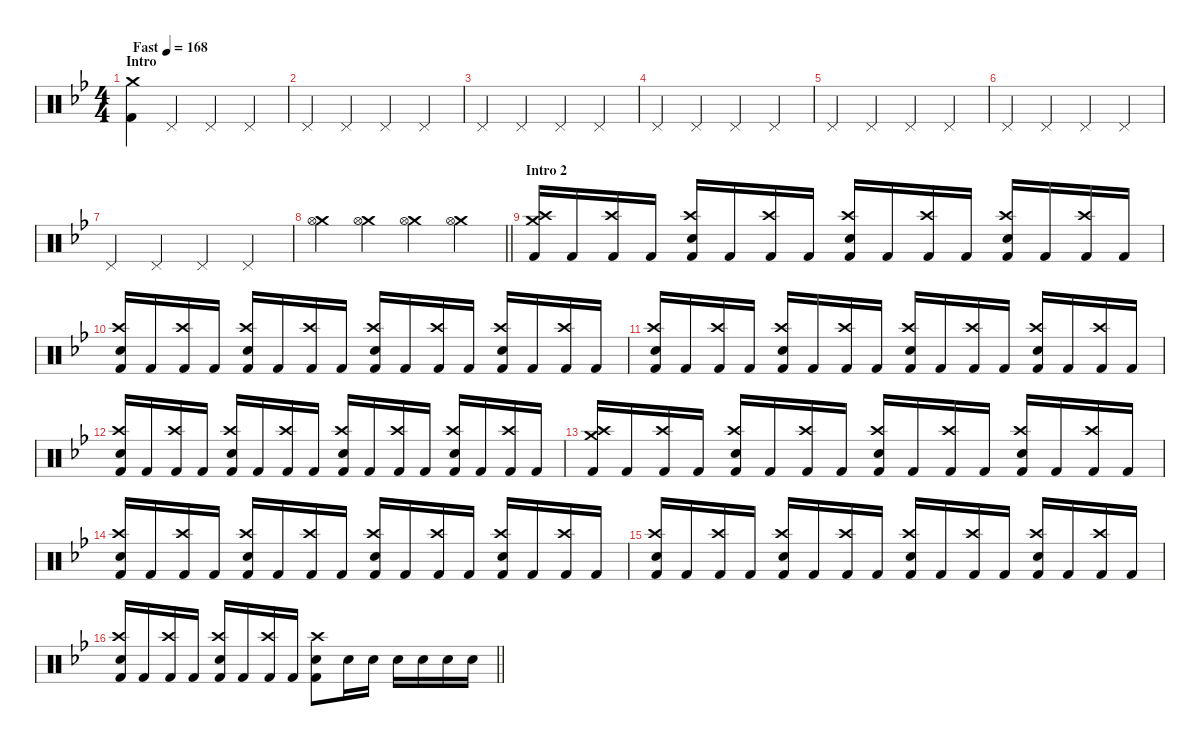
\defaultSystemsLayout 4
\hideDynamics
\bracketExtendMode nobrackets
\singleTrackTrackNamePolicy hidden
\multiTrackTrackNamePolicy hidden
\firstSystemTrackNameMode fullname
\firstSystemTrackNameOrientation horizontal
\otherSystemsTrackNameOrientation horizontal
\track ("Percussion" "drm.") {instrument percussion}
\staff {score}
\articulation defaults
\ts (4 4)
\beaming (8 2 2 2 2)
\section ("" "Intro")
\tempo (168 "Fast")
\clef neutral
\ks bb
("Crash medium (hit)"{acc forcenatural} "Kick (hit) 2"{acc forcenatural}).4{dy f beam Down} "Pedal Hi-Hat (hit)"{acc forcenatural}.4{beam Up} "Pedal Hi-Hat (hit)"{acc forcenatural}.4{beam Up} "Pedal Hi-Hat (hit)"{acc forcenatural}.4{beam Up} |
"Pedal Hi-Hat (hit)"{acc forcenatural}.4{beam Up} "Pedal Hi-Hat (hit)"{acc forcenatural}.4{beam Up} "Pedal Hi-Hat (hit)"{acc forcenatural}.4{beam Up} "Pedal Hi-Hat (hit)"{acc forcenatural}.4{beam Up} |
"Pedal Hi-Hat (hit)"{acc forcenatural}.4{beam Up} "Pedal Hi-Hat (hit)"{acc forcenatural}.4{beam Up} "Pedal Hi-Hat (hit)"{acc forcenatural}.4{beam Up} "Pedal Hi-Hat (hit)"{acc forcenatural}.4{beam Up} |
"Pedal Hi-Hat (hit)"{acc forcenatural}.4{beam Up} "Pedal Hi-Hat (hit)"{acc forcenatural}.4{beam Up} "Pedal Hi-Hat (hit)"{acc forcenatural}.4{beam Up} "Pedal Hi-Hat (hit)"{acc forcenatural}.4{beam Up} |
"Pedal Hi-Hat (hit)"{acc forcenatural}.4{beam Up} "Pedal Hi-Hat (hit)"{acc forcenatural}.4{beam Up} "Pedal Hi-Hat (hit)"{acc forcenatural}.4{beam Up} "Pedal Hi-Hat (hit)"{acc forcenatural}.4{beam Up} |
"Pedal Hi-Hat (hit)"{acc forcenatural}.4{beam Up} "Pedal Hi-Hat (hit)"{acc forcenatural}.4{beam Up} "Pedal Hi-Hat (hit)"{acc forcenatural}.4{beam Up} "Pedal Hi-Hat (hit)"{acc forcenatural}.4{beam Up} |
"Pedal Hi-Hat (hit)"{acc forcenatural}.4{beam Up} "Pedal Hi-Hat (hit)"{acc forcenatural}.4{beam Up} "Pedal Hi-Hat (hit)"{acc forcenatural}.4{beam Up} "Pedal Hi-Hat (hit)"{acc forcenatural}.4{beam Up} |
\barLineRight lightlight
("Crash medium (hit)"{acc forcenatural} "Hi-Hat (open)"{acc forcenatural}).4{beam Down} ("Crash medium (hit)"{acc forcenatural} "Hi-Hat (open)"{acc forcenatural}).4{beam Down} ("Crash medium (hit)"{acc forcenatural} "Hi-Hat (open)"{acc forcenatural}).4{beam Down} ("Crash medium (hit)"{acc forcenatural} "Hi-Hat (open)"{acc forcenatural}).4{beam Down} |
\section ("" "Intro 2")
("Crash high (hit)"{acc forcenatural} "Crash medium (hit)"{acc forcenatural} "Kick (hit) 2"{acc forcenatural}).16{beam Up} "Kick (hit) 2"{acc forcenatural}.16{beam Up} ("Crash high (hit)"{acc forcenatural} "Kick (hit) 2"{acc forcenatural}).16{beam Up} "Kick (hit) 2"{acc forcenatural}.16{beam Up} ("Crash high (hit)"{acc forcenatural} "Snare (hit) 2"{acc forcenatural} "Kick (hit) 2"{acc forcenatural}).16{beam Up} "Kick (hit) 2"{acc forcenatural}.16{beam Up} ("Crash high (hit)"{acc forcenatural} "Kick (hit) 2"{acc forcenatural}).16{beam Up} "Kick (hit) 2"{acc forcenatural}.16{beam Up} ("Crash high (hit)"{acc forcenatural} "Snare (hit) 2"{acc forcenatural} "Kick (hit) 2"{acc forcenatural}).16{beam Up} "Kick (hit) 2"{acc forcenatural}.16{beam Up} ("Crash high (hit)"{acc forcenatural} "Kick (hit) 2"{acc forcenatural}).16{beam Up} "Kick (hit) 2"{acc forcenatural}.16{beam Up} ("Crash high (hit)"{acc forcenatural} "Snare (hit) 2"{acc forcenatural} "Kick (hit) 2"{acc forcenatural}).16{beam Up} "Kick (hit) 2"{acc forcenatural}.16{beam Up} ("Crash high (hit)"{acc forcenatural} "Kick (hit) 2"{acc forcenatural}).16{beam Up} "Kick (hit) 2"{acc forcenatural}.16{beam Up} |
("Crash high (hit)"{acc forcenatural} "Snare (hit) 2"{acc forcenatural} "Kick (hit) 2"{acc forcenatural}).16{beam Up} "Kick (hit) 2"{acc forcenatural}.16{beam Up} ("Crash high (hit)"{acc forcenatural} "Kick (hit) 2"{acc forcenatural}).16{beam Up} "Kick (hit) 2"{acc forcenatural}.16{beam Up} ("Crash high (hit)"{acc forcenatural} "Snare (hit) 2"{acc forcenatural} "Kick (hit) 2"{acc forcenatural}).16{beam Up} "Kick (hit) 2"{acc forcenatural}.16{beam Up} ("Crash high (hit)"{acc forcenatural} "Kick (hit) 2"{acc forcenatural}).16{beam Up} "Kick (hit) 2"{acc forcenatural}.16{beam Up} ("Crash high (hit)"{acc forcenatural} "Snare (hit) 2"{acc forcenatural} "Kick (hit) 2"{acc forcenatural}).16{beam Up} "Kick (hit) 2"{acc forcenatural}.16{beam Up} ("Crash high (hit)"{acc forcenatural} "Kick (hit) 2"{acc forcenatural}).16{beam Up} "Kick (hit) 2"{acc forcenatural}.16{beam Up} ("Crash high (hit)"{acc forcenatural} "Snare (hit) 2"{acc forcenatural} "Kick (hit) 2"{acc forcenatural}).16{beam Up} "Kick (hit) 2"{acc forcenatural}.16{beam Up} ("Crash high (hit)"{acc forcenatural} "Kick (hit) 2"{acc forcenatural}).16{beam Up} "Kick (hit) 2"{acc forcenatural}.16{beam Up} |
("Crash high (hit)"{acc forcenatural} "Snare (hit) 2"{acc forcenatural} "Kick (hit) 2"{acc forcenatural}).16{beam Up} "Kick (hit) 2"{acc forcenatural}.16{beam Up} ("Crash high (hit)"{acc forcenatural} "Kick (hit) 2"{acc forcenatural}).16{beam Up} "Kick (hit) 2"{acc forcenatural}.16{beam Up} ("Crash high (hit)"{acc forcenatural} "Snare (hit) 2"{acc forcenatural} "Kick (hit) 2"{acc forcenatural}).16{beam Up} "Kick (hit) 2"{acc forcenatural}.16{beam Up} ("Crash high (hit)"{acc forcenatural} "Kick (hit) 2"{acc forcenatural}).16{beam Up} "Kick (hit) 2"{acc forcenatural}.16{beam Up} ("Crash high (hit)"{acc forcenatural} "Snare (hit) 2"{acc forcenatural} "Kick (hit) 2"{acc forcenatural}).16{beam Up} "Kick (hit) 2"{acc forcenatural}.16{beam Up} ("Crash high (hit)"{acc forcenatural} "Kick (hit) 2"{acc forcenatural}).16{beam Up} "Kick (hit) 2"{acc forcenatural}.16{beam Up} ("Crash high (hit)"{acc forcenatural} "Snare (hit) 2"{acc forcenatural} "Kick (hit) 2"{acc forcenatural}).16{beam Up} "Kick (hit) 2"{acc forcenatural}.16{beam Up} ("Crash high (hit)"{acc forcenatural} "Kick (hit) 2"{acc forcenatural}).16{beam Up} "Kick (hit) 2"{acc forcenatural}.16{beam Up} |
("Crash high (hit)"{acc forcenatural} "Snare (hit) 2"{acc forcenatural} "Kick (hit) 2"{acc forcenatural}).16{beam Up} "Kick (hit) 2"{acc forcenatural}.16{beam Up} ("Crash high (hit)"{acc forcenatural} "Kick (hit) 2"{acc forcenatural}).16{beam Up} "Kick (hit) 2"{acc forcenatural}.16{beam Up} ("Crash high (hit)"{acc forcenatural} "Snare (hit) 2"{acc forcenatural} "Kick (hit) 2"{acc forcenatural}).16{beam Up} "Kick (hit) 2"{acc forcenatural}.16{beam Up} ("Crash high (hit)"{acc forcenatural} "Kick (hit) 2"{acc forcenatural}).16{beam Up} "Kick (hit) 2"{acc forcenatural}.16{beam Up} ("Crash high (hit)"{acc forcenatural} "Snare (hit) 2"{acc forcenatural} "Kick (hit) 2"{acc forcenatural}).16{beam Up} "Kick (hit) 2"{acc forcenatural}.16{beam Up} ("Crash high (hit)"{acc forcenatural} "Kick (hit) 2"{acc forcenatural}).16{beam Up} "Kick (hit) 2"{acc forcenatural}.16{beam Up} ("Crash high (hit)"{acc forcenatural} "Snare (hit) 2"{acc forcenatural} "Kick (hit) 2"{acc forcenatural}).16{beam Up} "Kick (hit) 2"{acc forcenatural}.16{beam Up} ("Crash high (hit)"{acc forcenatural} "Kick (hit) 2"{acc forcenatural}).16{beam Up} "Kick (hit) 2"{acc forcenatural}.16{beam Up} |
("Crash high (hit)"{acc forcenatural} "Crash medium (hit)"{acc forcenatural} "Kick (hit) 2"{acc forcenatural}).16{beam Up} "Kick (hit) 2"{acc forcenatural}.16{beam Up} ("Crash high (hit)"{acc forcenatural} "Kick (hit) 2"{acc forcenatural}).16{beam Up} "Kick (hit) 2"{acc forcenatural}.16{beam Up} ("Crash high (hit)"{acc forcenatural} "Snare (hit) 2"{acc forcenatural} "Kick (hit) 2"{acc forcenatural}).16{beam Up} "Kick (hit) 2"{acc forcenatural}.16{beam Up} ("Crash high (hit)"{acc forcenatural} "Kick (hit) 2"{acc forcenatural}).16{beam Up} "Kick (hit) 2"{acc forcenatural}.16{beam Up} ("Crash high (hit)"{acc forcenatural} "Snare (hit) 2"{acc forcenatural} "Kick (hit) 2"{acc forcenatural}).16{beam Up} "Kick (hit) 2"{acc forcenatural}.16{beam Up} ("Crash high (hit)"{acc forcenatural} "Kick (hit) 2"{acc forcenatural}).16{beam Up} "Kick (hit) 2"{acc forcenatural}.16{beam Up} ("Crash high (hit)"{acc forcenatural} "Snare (hit) 2"{acc forcenatural} "Kick (hit) 2"{acc forcenatural}).16{beam Up} "Kick (hit) 2"{acc forcenatural}.16{beam Up} ("Crash high (hit)"{acc forcenatural} "Kick (hit) 2"{acc forcenatural}).16{beam Up} "Kick (hit) 2"{acc forcenatural}.16{beam Up} |
("Crash high (hit)"{acc forcenatural} "Snare (hit) 2"{acc forcenatural} "Kick (hit) 2"{acc forcenatural}).16{beam Up} "Kick (hit) 2"{acc forcenatural}.16{beam Up} ("Crash high (hit)"{acc forcenatural} "Kick (hit) 2"{acc forcenatural}).16{beam Up} "Kick (hit) 2"{acc forcenatural}.16{beam Up} ("Crash high (hit)"{acc forcenatural} "Snare (hit) 2"{acc forcenatural} "Kick (hit) 2"{acc forcenatural}).16{beam Up} "Kick (hit) 2"{acc forcenatural}.16{beam Up} ("Crash high (hit)"{acc forcenatural} "Kick (hit) 2"{acc forcenatural}).16{beam Up} "Kick (hit) 2"{acc forcenatural}.16{beam Up} ("Crash high (hit)"{acc forcenatural} "Snare (hit) 2"{acc forcenatural} "Kick (hit) 2"{acc forcenatural}).16{beam Up} "Kick (hit) 2"{acc forcenatural}.16{beam Up} ("Crash high (hit)"{acc forcenatural} "Kick (hit) 2"{acc forcenatural}).16{beam Up} "Kick (hit) 2"{acc forcenatural}.16{beam Up} ("Crash high (hit)"{acc forcenatural} "Snare (hit) 2"{acc forcenatural} "Kick (hit) 2"{acc forcenatural}).16{beam Up} "Kick (hit) 2"{acc forcenatural}.16{beam Up} ("Crash high (hit)"{acc forcenatural} "Kick (hit) 2"{acc forcenatural}).16{beam Up} "Kick (hit) 2"{acc forcenatural}.16{beam Up} |
("Crash high (hit)"{acc forcenatural} "Snare (hit) 2"{acc forcenatural} "Kick (hit) 2"{acc forcenatural}).16{beam Up} "Kick (hit) 2"{acc forcenatural}.16{beam Up} ("Crash high (hit)"{acc forcenatural} "Kick (hit) 2"{acc forcenatural}).16{beam Up} "Kick (hit) 2"{acc forcenatural}.16{beam Up} ("Crash high (hit)"{acc forcenatural} "Snare (hit) 2"{acc forcenatural} "Kick (hit) 2"{acc forcenatural}).16{beam Up} "Kick (hit) 2"{acc forcenatural}.16{beam Up} ("Crash high (hit)"{acc forcenatural} "Kick (hit) 2"{acc forcenatural}).16{beam Up} "Kick (hit) 2"{acc forcenatural}.16{beam Up} ("Crash high (hit)"{acc forcenatural} "Snare (hit) 2"{acc forcenatural} "Kick (hit) 2"{acc forcenatural}).16{beam Up} "Kick (hit) 2"{acc forcenatural}.16{beam Up} ("Crash high (hit)"{acc forcenatural} "Kick (hit) 2"{acc forcenatural}).16{beam Up} "Kick (hit) 2"{acc forcenatural}.16{beam Up} ("Crash high (hit)"{acc forcenatural} "Snare (hit) 2"{acc forcenatural} "Kick (hit) 2"{acc forcenatural}).16{beam Up} "Kick (hit) 2"{acc forcenatural}.16{beam Up} ("Crash high (hit)"{acc forcenatural} "Kick (hit) 2"{acc forcenatural}).16{beam Up} "Kick (hit) 2"{acc forcenatural}.16{beam Up} |
\barLineRight lightlight
("Crash high (hit)"{acc forcenatural} "Snare (hit) 2"{acc forcenatural} "Kick (hit) 2"{acc forcenatural}).16{beam Up} "Kick (hit) 2"{acc forcenatural}.16{beam Up} ("Crash high (hit)"{acc forcenatural} "Kick (hit) 2"{acc forcenatural}).16{beam Up} "Kick (hit) 2"{acc forcenatural}.16{beam Up} ("Crash high (hit)"{acc forcenatural} "Snare (hit) 2"{acc forcenatural} "Kick (hit) 2"{acc forcenatural}).16{beam Up} "Kick (hit) 2"{acc forcenatural}.16{beam Up} ("Crash high (hit)"{acc forcenatural} "Kick (hit) 2"{acc forcenatural}).16{beam Up} "Kick (hit) 2"{acc forcenatural}.16{beam Up} ("Crash high (hit)"{acc forcenatural} "Snare (hit) 2"{acc forcenatural} "Kick (hit) 2"{acc forcenatural}).8{beam Down} "Snare (hit) 2"{acc forcenatural}.16{beam Down} "Snare (hit) 2"{acc forcenatural}.16{beam Down} "Snare (hit) 2"{acc forcenatural}.16{beam Down} "Snare (hit) 2"{acc forcenatural}.16{beam Down} "Snare (hit) 2"{acc forcenatural}.16{beam Down} "Snare (hit) 2"{acc forcenatural}.16{beam Down}
